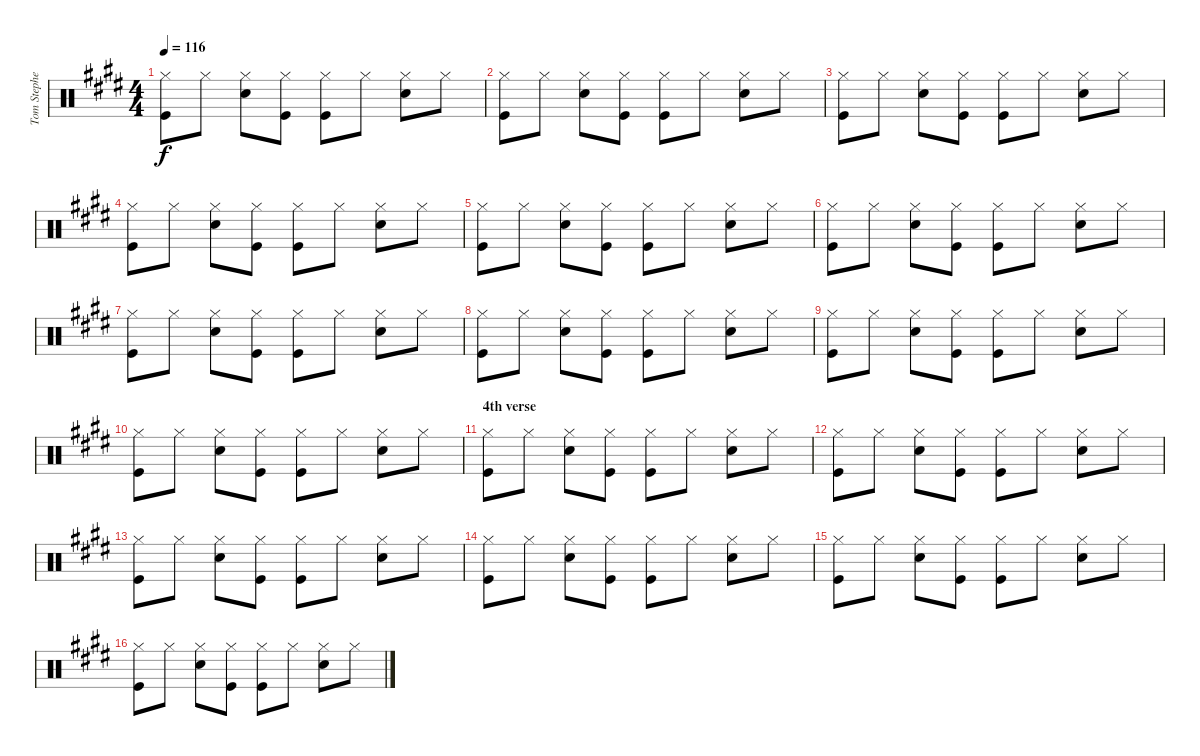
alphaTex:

\track ("Tom Stephen" "Tom Stephe") {instrument percussion}
\staff {score}
\articulation defaults
\ts (4 4)
\tempo 116
\clef neutral
\ks e
("Kick (hit)" "Hi-Hat (closed)").8{dy f} "Hi-Hat (closed)".8 ("Snare (hit) 2" "Hi-Hat (closed)").8 ("Kick (hit)" "Hi-Hat (closed)").8 ("Kick (hit)" "Hi-Hat (closed)").8 "Hi-Hat (closed)".8 ("Snare (hit) 2" "Hi-Hat (closed)").8 "Hi-Hat (closed)".8 |
("Kick (hit)" "Hi-Hat (closed)").8 "Hi-Hat (closed)".8 ("Snare (hit) 2" "Hi-Hat (closed)").8 ("Kick (hit)" "Hi-Hat (closed)").8 ("Kick (hit)" "Hi-Hat (closed)").8 "Hi-Hat (closed)".8 ("Snare (hit) 2" "Hi-Hat (closed)").8 "Hi-Hat (closed)".8 |
("Kick (hit)" "Hi-Hat (closed)").8 "Hi-Hat (closed)".8 ("Snare (hit) 2" "Hi-Hat (closed)").8 ("Kick (hit)" "Hi-Hat (closed)").8 ("Kick (hit)" "Hi-Hat (closed)").8 "Hi-Hat (closed)".8 ("Snare (hit) 2" "Hi-Hat (closed)").8 "Hi-Hat (closed)".8 |
("Kick (hit)" "Hi-Hat (closed)").8 "Hi-Hat (closed)".8 ("Snare (hit) 2" "Hi-Hat (closed)").8 ("Kick (hit)" "Hi-Hat (closed)").8 ("Kick (hit)" "Hi-Hat (closed)").8 "Hi-Hat (closed)".8 ("Snare (hit) 2" "Hi-Hat (closed)").8 "Hi-Hat (closed)".8 |
("Kick (hit)" "Hi-Hat (closed)").8 "Hi-Hat (closed)".8 ("Snare (hit) 2" "Hi-Hat (closed)").8 ("Kick (hit)" "Hi-Hat (closed)").8 ("Kick (hit)" "Hi-Hat (closed)").8 "Hi-Hat (closed)".8 ("Snare (hit) 2" "Hi-Hat (closed)").8 "Hi-Hat (closed)".8 |
("Kick (hit)" "Hi-Hat (closed)").8 "Hi-Hat (closed)".8 ("Snare (hit) 2" "Hi-Hat (closed)").8 ("Kick (hit)" "Hi-Hat (closed)").8 ("Kick (hit)" "Hi-Hat (closed)").8 "Hi-Hat (closed)".8 ("Snare (hit) 2" "Hi-Hat (closed)").8 "Hi-Hat (closed)".8 |
("Kick (hit)" "Hi-Hat (closed)").8 "Hi-Hat (closed)".8 ("Snare (hit) 2" "Hi-Hat (closed)").8 ("Kick (hit)" "Hi-Hat (closed)").8 ("Kick (hit)" "Hi-Hat (closed)").8 "Hi-Hat (closed)".8 ("Snare (hit) 2" "Hi-Hat (closed)").8 "Hi-Hat (closed)".8 |
("Kick (hit)" "Hi-Hat (closed)").8 "Hi-Hat (closed)".8 ("Snare (hit) 2" "Hi-Hat (closed)").8 ("Kick (hit)" "Hi-Hat (closed)").8 ("Kick (hit)" "Hi-Hat (closed)").8 "Hi-Hat (closed)".8 ("Snare (hit) 2" "Hi-Hat (closed)").8 "Hi-Hat (closed)".8 |
("Kick (hit)" "Hi-Hat (closed)").8 "Hi-Hat (closed)".8 ("Snare (hit) 2" "Hi-Hat (closed)").8 ("Kick (hit)" "Hi-Hat (closed)").8 ("Kick (hit)" "Hi-Hat (closed)").8 "Hi-Hat (closed)".8 ("Snare (hit) 2" "Hi-Hat (closed)").8 "Hi-Hat (closed)".8 |
("Kick (hit)" "Hi-Hat (closed)").8 "Hi-Hat (closed)".8 ("Snare (hit) 2" "Hi-Hat (closed)").8 ("Kick (hit)" "Hi-Hat (closed)").8 ("Kick (hit)" "Hi-Hat (closed)").8 "Hi-Hat (closed)".8 ("Snare (hit) 2" "Hi-Hat (closed)").8 "Hi-Hat (closed)".8 |
\section ("" "4th verse")
("Kick (hit)" "Hi-Hat (closed)").8 "Hi-Hat (closed)".8 ("Snare (hit) 2" "Hi-Hat (closed)").8 ("Kick (hit)" "Hi-Hat (closed)").8 ("Kick (hit)" "Hi-Hat (closed)").8 "Hi-Hat (closed)".8 ("Snare (hit) 2" "Hi-Hat (closed)").8 "Hi-Hat (closed)".8 |
("Kick (hit)" "Hi-Hat (closed)").8 "Hi-Hat (closed)".8 ("Snare (hit) 2" "Hi-Hat (closed)").8 ("Kick (hit)" "Hi-Hat (closed)").8 ("Kick (hit)" "Hi-Hat (closed)").8 "Hi-Hat (closed)".8 ("Snare (hit) 2" "Hi-Hat (closed)").8 "Hi-Hat (closed)".8 |
("Kick (hit)" "Hi-Hat (closed)").8 "Hi-Hat (closed)".8 ("Snare (hit) 2" "Hi-Hat (closed)").8 ("Kick (hit)" "Hi-Hat (closed)").8 ("Kick (hit)" "Hi-Hat (closed)").8 "Hi-Hat (closed)".8 ("Snare (hit) 2" "Hi-Hat (closed)").8 "Hi-Hat (closed)".8 |
("Kick (hit)" "Hi-Hat (closed)").8 "Hi-Hat (closed)".8 ("Snare (hit) 2" "Hi-Hat (closed)").8 ("Kick (hit)" "Hi-Hat (closed)").8 ("Kick (hit)" "Hi-Hat (closed)").8 "Hi-Hat (closed)".8 ("Snare (hit) 2" "Hi-Hat (closed)").8 "Hi-Hat (closed)".8 |
("Kick (hit)" "Hi-Hat (closed)").8 "Hi-Hat (closed)".8 ("Snare (hit) 2" "Hi-Hat (closed)").8 ("Kick (hit)" "Hi-Hat (closed)").8 ("Kick (hit)" "Hi-Hat (closed)").8 "Hi-Hat (closed)".8 ("Snare (hit) 2" "Hi-Hat (closed)").8 "Hi-Hat (closed)".8 |
("Kick (hit)" "Hi-Hat (closed)").8 "Hi-Hat (closed)".8 ("Snare (hit) 2" "Hi-Hat (closed)").8 ("Kick (hit)" "Hi-Hat (closed)").8 ("Kick (hit)" "Hi-Hat (closed)").8 "Hi-Hat (closed)".8 ("Snare (hit) 2" "Hi-Hat (closed)").8 "Hi-Hat (closed)".8
